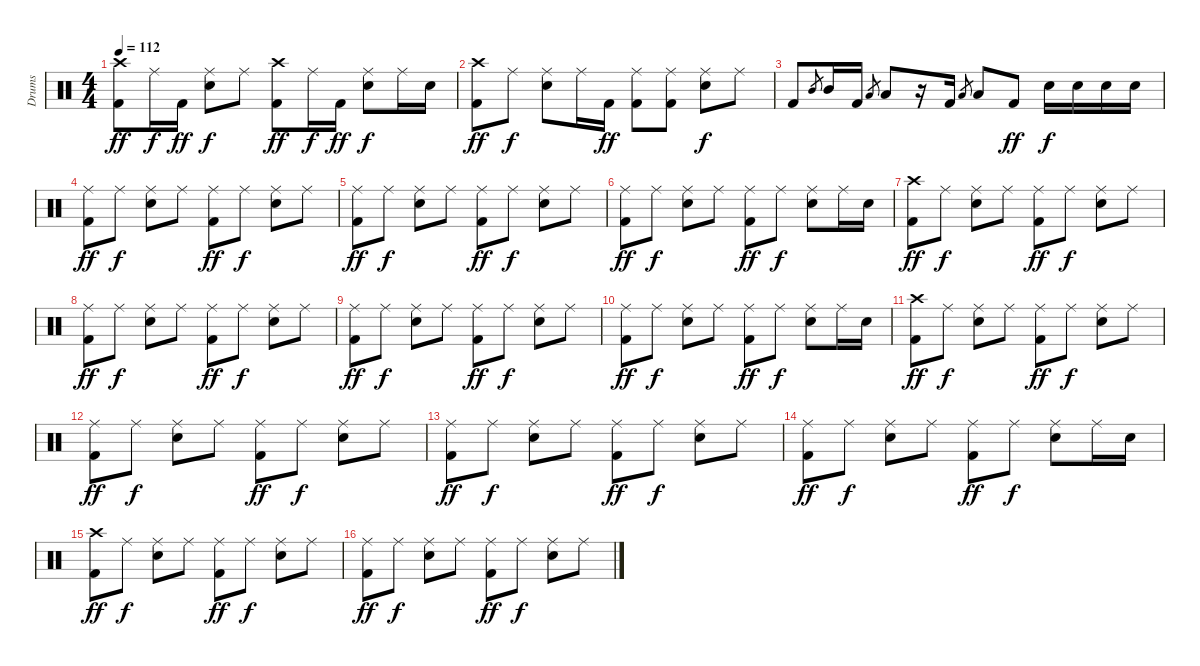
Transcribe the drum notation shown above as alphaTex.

\track ("Drums" "Drums") {instrument percussion}
\staff {score}
\articulation defaults
\ts (4 4)
\tempo 112
\clef neutral
\ks c
("Crash high (hit)" "Kick (hit) 2").8{dy ff} "Ride (middle)".16{dy f} "Kick (hit) 2".16{dy ff} ("Ride (middle)" "Snare (hit) 2").8{dy f} "Ride (middle)".8 ("Crash high (hit)" "Kick (hit) 2").8{dy ff} "Ride (middle)".16{dy f} "Kick (hit) 2".16{dy ff} ("Ride (middle)" "Snare (hit) 2").8{dy f} "Ride (middle)".16 "Snare (hit) 2".16 |
("Crash high (hit)" "Kick (hit) 2").8{dy ff} "Ride (middle)".8{dy f} ("Ride (middle)" "Snare (hit) 2").8 "Ride (middle)".16 "Kick (hit) 2".16{dy ff} ("Ride (middle)" "Kick (hit) 2").8 ("Ride (middle)" "Kick (hit) 2").8 ("Ride (middle)" "Snare (hit) 2").8{dy f} "Ride (middle)".8 |
"Kick (hit) 2".8 "Mid Tom (hit)".8{gr} "Mid Tom (hit)".16 "Kick (hit) 2".16 "Low Tom (hit)".8{gr} "Low Tom (hit)".8 r.16 "Kick (hit) 2".16 "Low Tom (hit)".8{gr} "Low Tom (hit)".8 "Kick (hit) 2".8{dy ff} "Snare (hit) 2".16{dy f} "Snare (hit) 2".16 "Snare (hit) 2".16 "Snare (hit) 2".16 |
("Ride (middle)" "Kick (hit) 2").8{dy ff} "Ride (middle)".8{dy f} ("Ride (middle)" "Snare (hit) 2").8 "Ride (middle)".8 ("Ride (middle)" "Kick (hit) 2").8{dy ff} "Ride (middle)".8{dy f} ("Ride (middle)" "Snare (hit) 2").8 "Ride (middle)".8 |
("Ride (middle)" "Kick (hit) 2").8{dy ff} "Ride (middle)".8{dy f} ("Ride (middle)" "Snare (hit) 2").8 "Ride (middle)".8 ("Ride (middle)" "Kick (hit) 2").8{dy ff} "Ride (middle)".8{dy f} ("Ride (middle)" "Snare (hit) 2").8 "Ride (middle)".8 |
("Ride (middle)" "Kick (hit) 2").8{dy ff} "Ride (middle)".8{dy f} ("Ride (middle)" "Snare (hit) 2").8 "Ride (middle)".8 ("Ride (middle)" "Kick (hit) 2").8{dy ff} "Ride (middle)".8{dy f} ("Ride (middle)" "Snare (hit) 2").8 "Ride (middle)".16 "Snare (hit) 2".16 |
("Crash high (hit)" "Kick (hit) 2").8{dy ff} "Ride (middle)".8{dy f} ("Ride (middle)" "Snare (hit) 2").8 "Ride (middle)".8 ("Ride (middle)" "Kick (hit) 2").8{dy ff} "Ride (middle)".8{dy f} ("Ride (middle)" "Snare (hit) 2").8 "Ride (middle)".8 |
("Ride (middle)" "Kick (hit) 2").8{dy ff} "Ride (middle)".8{dy f} ("Ride (middle)" "Snare (hit) 2").8 "Ride (middle)".8 ("Ride (middle)" "Kick (hit) 2").8{dy ff} "Ride (middle)".8{dy f} ("Ride (middle)" "Snare (hit) 2").8 "Ride (middle)".8 |
("Ride (middle)" "Kick (hit) 2").8{dy ff} "Ride (middle)".8{dy f} ("Ride (middle)" "Snare (hit) 2").8 "Ride (middle)".8 ("Ride (middle)" "Kick (hit) 2").8{dy ff} "Ride (middle)".8{dy f} ("Ride (middle)" "Snare (hit) 2").8 "Ride (middle)".8 |
("Ride (middle)" "Kick (hit) 2").8{dy ff} "Ride (middle)".8{dy f} ("Ride (middle)" "Snare (hit) 2").8 "Ride (middle)".8 ("Ride (middle)" "Kick (hit) 2").8{dy ff} "Ride (middle)".8{dy f} ("Ride (middle)" "Snare (hit) 2").8 "Ride (middle)".16 "Snare (hit) 2".16 |
("Crash high (hit)" "Kick (hit) 2").8{dy ff} "Ride (middle)".8{dy f} ("Ride (middle)" "Snare (hit) 2").8 "Ride (middle)".8 ("Ride (middle)" "Kick (hit) 2").8{dy ff} "Ride (middle)".8{dy f} ("Ride (middle)" "Snare (hit) 2").8 "Ride (middle)".8 |
("Ride (middle)" "Kick (hit) 2").8{dy ff} "Ride (middle)".8{dy f} ("Ride (middle)" "Snare (hit) 2").8 "Ride (middle)".8 ("Ride (middle)" "Kick (hit) 2").8{dy ff} "Ride (middle)".8{dy f} ("Ride (middle)" "Snare (hit) 2").8 "Ride (middle)".8 |
("Ride (middle)" "Kick (hit) 2").8{dy ff} "Ride (middle)".8{dy f} ("Ride (middle)" "Snare (hit) 2").8 "Ride (middle)".8 ("Ride (middle)" "Kick (hit) 2").8{dy ff} "Ride (middle)".8{dy f} ("Ride (middle)" "Snare (hit) 2").8 "Ride (middle)".8 |
("Ride (middle)" "Kick (hit) 2").8{dy ff} "Ride (middle)".8{dy f} ("Ride (middle)" "Snare (hit) 2").8 "Ride (middle)".8 ("Ride (middle)" "Kick (hit) 2").8{dy ff} "Ride (middle)".8{dy f} ("Ride (middle)" "Snare (hit) 2").8 "Ride (middle)".16 "Snare (hit) 2".16 |
("Crash high (hit)" "Kick (hit) 2").8{dy ff} "Ride (middle)".8{dy f} ("Ride (middle)" "Snare (hit) 2").8 "Ride (middle)".8 ("Ride (middle)" "Kick (hit) 2").8{dy ff} "Ride (middle)".8{dy f} ("Ride (middle)" "Snare (hit) 2").8 "Ride (middle)".8 |
("Ride (middle)" "Kick (hit) 2").8{dy ff volume 14} "Ride (middle)".8{dy f} ("Ride (middle)" "Snare (hit) 2").8 "Ride (middle)".8 ("Ride (middle)" "Kick (hit) 2").8{dy ff} "Ride (middle)".8{dy f} ("Ride (middle)" "Snare (hit) 2").8 "Ride (middle)".8
